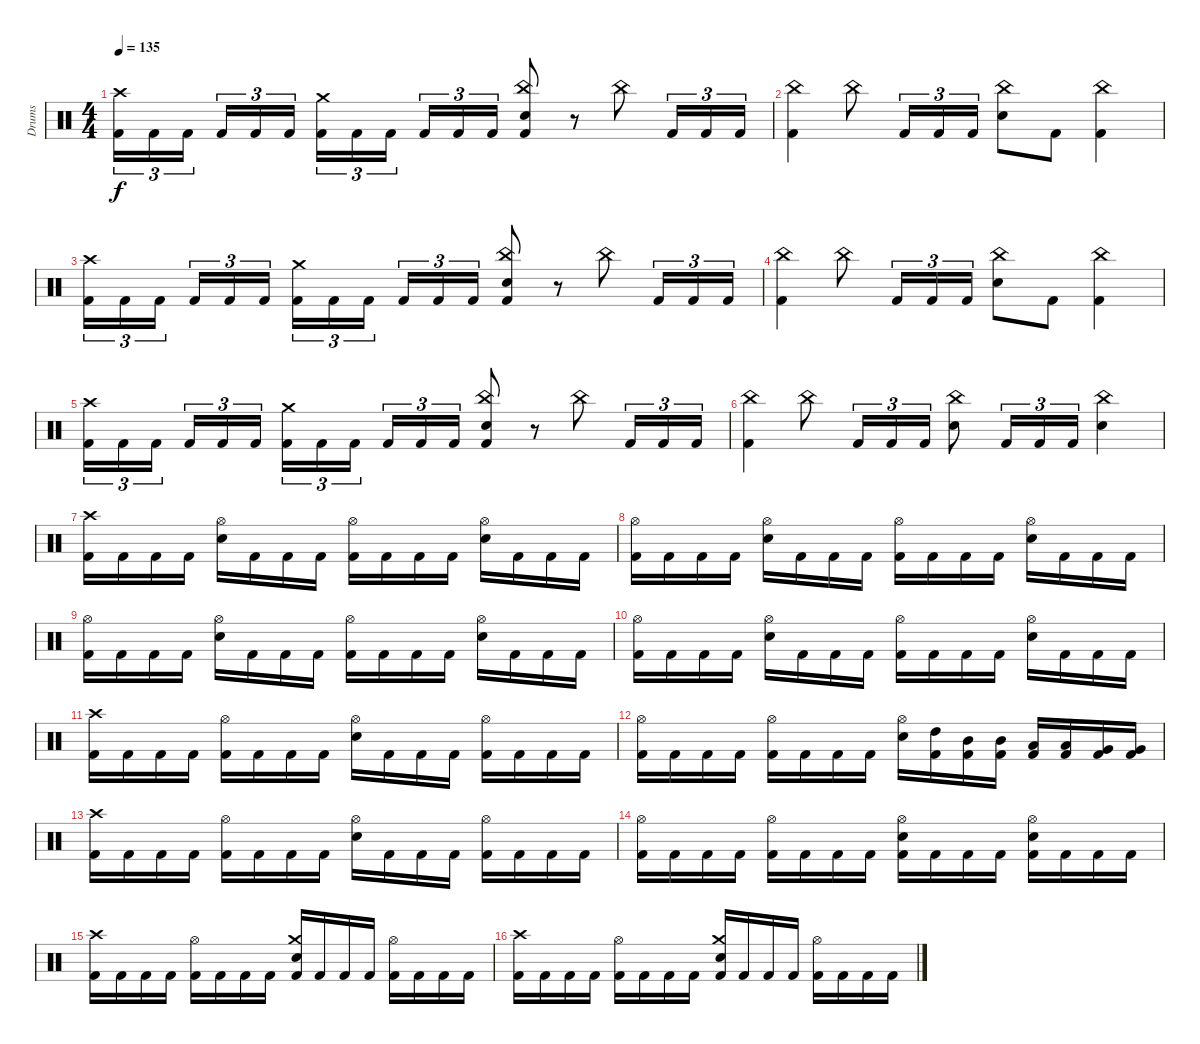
\track ("Drums" "Drums") {instrument percussion}
\staff {score}
\articulation defaults
\ts (4 4)
\tempo 135
\clef neutral
\ks c
("Crash high (hit)" "Kick (hit) 2").16{tu (3 2) dy f} "Kick (hit) 2".16{tu (3 2)} "Kick (hit) 2".16{tu (3 2) beam splitsecondary} "Kick (hit) 2".16{tu (3 2)} "Kick (hit) 2".16{tu (3 2)} "Kick (hit) 2".16{tu (3 2)} ("Crash medium (hit)" "Kick (hit) 2").16{tu (3 2)} "Kick (hit) 2".16{tu (3 2)} "Kick (hit) 2".16{tu (3 2) beam splitsecondary} "Kick (hit) 2".16{tu (3 2)} "Kick (hit) 2".16{tu (3 2)} "Kick (hit) 2".16{tu (3 2)} ("China (hit)" "Snare (hit) 2" "Kick (hit) 2").8 r.8 "China (hit)".8 "Kick (hit) 2".16{tu (3 2)} "Kick (hit) 2".16{tu (3 2)} "Kick (hit) 2".16{tu (3 2)} |
("China (hit)" "Kick (hit) 2").4 "China (hit)".8 "Kick (hit) 2".16{tu (3 2)} "Kick (hit) 2".16{tu (3 2)} "Kick (hit) 2".16{tu (3 2)} ("China (hit)" "Snare (hit) 2").8 "Kick (hit) 2".8 ("China (hit)" "Kick (hit) 2").4 |
("Crash high (hit)" "Kick (hit) 2").16{tu (3 2)} "Kick (hit) 2".16{tu (3 2)} "Kick (hit) 2".16{tu (3 2) beam splitsecondary} "Kick (hit) 2".16{tu (3 2)} "Kick (hit) 2".16{tu (3 2)} "Kick (hit) 2".16{tu (3 2)} ("Crash medium (hit)" "Kick (hit) 2").16{tu (3 2)} "Kick (hit) 2".16{tu (3 2)} "Kick (hit) 2".16{tu (3 2) beam splitsecondary} "Kick (hit) 2".16{tu (3 2)} "Kick (hit) 2".16{tu (3 2)} "Kick (hit) 2".16{tu (3 2)} ("China (hit)" "Snare (hit) 2" "Kick (hit) 2").8 r.8 "China (hit)".8 "Kick (hit) 2".16{tu (3 2)} "Kick (hit) 2".16{tu (3 2)} "Kick (hit) 2".16{tu (3 2)} |
("China (hit)" "Kick (hit) 2").4 "China (hit)".8 "Kick (hit) 2".16{tu (3 2)} "Kick (hit) 2".16{tu (3 2)} "Kick (hit) 2".16{tu (3 2)} ("China (hit)" "Snare (hit) 2").8 "Kick (hit) 2".8 ("China (hit)" "Kick (hit) 2").4 |
("Crash high (hit)" "Kick (hit) 2").16{tu (3 2)} "Kick (hit) 2".16{tu (3 2)} "Kick (hit) 2".16{tu (3 2) beam splitsecondary} "Kick (hit) 2".16{tu (3 2)} "Kick (hit) 2".16{tu (3 2)} "Kick (hit) 2".16{tu (3 2)} ("Crash medium (hit)" "Kick (hit) 2").16{tu (3 2)} "Kick (hit) 2".16{tu (3 2)} "Kick (hit) 2".16{tu (3 2) beam splitsecondary} "Kick (hit) 2".16{tu (3 2)} "Kick (hit) 2".16{tu (3 2)} "Kick (hit) 2".16{tu (3 2)} ("China (hit)" "Snare (hit) 2" "Kick (hit) 2").8 r.8 "China (hit)".8 "Kick (hit) 2".16{tu (3 2)} "Kick (hit) 2".16{tu (3 2)} "Kick (hit) 2".16{tu (3 2)} |
("China (hit)" "Kick (hit) 2").4 "China (hit)".8 "Kick (hit) 2".16{tu (3 2)} "Kick (hit) 2".16{tu (3 2)} "Kick (hit) 2".16{tu (3 2)} ("China (hit)" "Snare (hit) 2").8 "Kick (hit) 2".16{tu (3 2)} "Kick (hit) 2".16{tu (3 2)} "Kick (hit) 2".16{tu (3 2)} ("China (hit)" "Snare (hit) 2").4 |
("Crash high (hit)" "Kick (hit) 2").16 "Kick (hit) 2".16 "Kick (hit) 2".16 "Kick (hit) 2".16 ("Hi-Hat (open)" "Snare (hit) 2").16 "Kick (hit) 2".16 "Kick (hit) 2".16 "Kick (hit) 2".16 ("Hi-Hat (open)" "Kick (hit) 2").16 "Kick (hit) 2".16 "Kick (hit) 2".16 "Kick (hit) 2".16 ("Hi-Hat (open)" "Snare (hit) 2").16 "Kick (hit) 2".16 "Kick (hit) 2".16 "Kick (hit) 2".16 |
("Hi-Hat (open)" "Kick (hit) 2").16 "Kick (hit) 2".16 "Kick (hit) 2".16 "Kick (hit) 2".16 ("Hi-Hat (open)" "Snare (hit) 2").16 "Kick (hit) 2".16 "Kick (hit) 2".16 "Kick (hit) 2".16 ("Hi-Hat (open)" "Kick (hit) 2").16 "Kick (hit) 2".16 "Kick (hit) 2".16 "Kick (hit) 2".16 ("Hi-Hat (open)" "Snare (hit) 2").16 "Kick (hit) 2".16 "Kick (hit) 2".16 "Kick (hit) 2".16 |
("Hi-Hat (open)" "Kick (hit) 2").16 "Kick (hit) 2".16 "Kick (hit) 2".16 "Kick (hit) 2".16 ("Hi-Hat (open)" "Snare (hit) 2").16 "Kick (hit) 2".16 "Kick (hit) 2".16 "Kick (hit) 2".16 ("Hi-Hat (open)" "Kick (hit) 2").16 "Kick (hit) 2".16 "Kick (hit) 2".16 "Kick (hit) 2".16 ("Hi-Hat (open)" "Snare (hit) 2").16 "Kick (hit) 2".16 "Kick (hit) 2".16 "Kick (hit) 2".16 |
("Hi-Hat (open)" "Kick (hit) 2").16 "Kick (hit) 2".16 "Kick (hit) 2".16 "Kick (hit) 2".16 ("Hi-Hat (open)" "Snare (hit) 2").16 "Kick (hit) 2".16 "Kick (hit) 2".16 "Kick (hit) 2".16 ("Hi-Hat (open)" "Kick (hit) 2").16 "Kick (hit) 2".16 "Kick (hit) 2".16 "Kick (hit) 2".16 ("Hi-Hat (open)" "Snare (hit) 2").16 "Kick (hit) 2".16 "Kick (hit) 2".16 "Kick (hit) 2".16 |
("Crash high (hit)" "Kick (hit) 2").16 "Kick (hit) 2".16 "Kick (hit) 2".16 "Kick (hit) 2".16 ("Hi-Hat (open)" "Kick (hit) 2").16 "Kick (hit) 2".16 "Kick (hit) 2".16 "Kick (hit) 2".16 ("Hi-Hat (open)" "Snare (hit) 2").16 "Kick (hit) 2".16 "Kick (hit) 2".16 "Kick (hit) 2".16 ("Hi-Hat (open)" "Kick (hit) 2").16 "Kick (hit) 2".16 "Kick (hit) 2".16 "Kick (hit) 2".16 |
("Hi-Hat (open)" "Kick (hit) 2").16 "Kick (hit) 2".16 "Kick (hit) 2".16 "Kick (hit) 2".16 ("Hi-Hat (open)" "Kick (hit) 2").16 "Kick (hit) 2".16 "Kick (hit) 2".16 "Kick (hit) 2".16 ("Hi-Hat (open)" "Snare (hit) 2").16 ("High Tom (hit)" "Kick (hit) 2").16 ("Mid Tom (hit)" "Kick (hit) 2").16 ("Mid Tom (hit)" "Kick (hit) 2").16 ("Low Tom (hit)" "Kick (hit) 2").16 ("Low Tom (hit)" "Kick (hit) 2").16 ("Very Low Tom (hit)" "Kick (hit) 2").16 ("Very Low Tom (hit)" "Kick (hit) 2").16 |
("Crash high (hit)" "Kick (hit) 2").16 "Kick (hit) 2".16 "Kick (hit) 2".16 "Kick (hit) 2".16 ("Hi-Hat (open)" "Kick (hit) 2").16 "Kick (hit) 2".16 "Kick (hit) 2".16 "Kick (hit) 2".16 ("Hi-Hat (open)" "Snare (hit) 2").16 "Kick (hit) 2".16 "Kick (hit) 2".16 "Kick (hit) 2".16 ("Hi-Hat (open)" "Kick (hit) 2").16 "Kick (hit) 2".16 "Kick (hit) 2".16 "Kick (hit) 2".16 |
("Hi-Hat (open)" "Kick (hit) 2").16 "Kick (hit) 2".16 "Kick (hit) 2".16 "Kick (hit) 2".16 ("Hi-Hat (open)" "Kick (hit) 2").16 "Kick (hit) 2".16 "Kick (hit) 2".16 "Kick (hit) 2".16 ("Hi-Hat (open)" "Snare (hit) 2" "Kick (hit) 2").16 "Kick (hit) 2".16 "Kick (hit) 2".16 "Kick (hit) 2".16 ("Hi-Hat (open)" "Snare (hit) 2" "Kick (hit) 2").16 "Kick (hit) 2".16 "Kick (hit) 2".16 "Kick (hit) 2".16 |
("Crash high (hit)" "Kick (hit) 2").16 "Kick (hit) 2".16 "Kick (hit) 2".16 "Kick (hit) 2".16 ("Hi-Hat (open)" "Kick (hit) 2").16 "Kick (hit) 2".16 "Kick (hit) 2".16 "Kick (hit) 2".16 ("Crash medium (hit)" "Snare (hit) 2" "Kick (hit) 2").16 "Kick (hit) 2".16 "Kick (hit) 2".16 "Kick (hit) 2".16 ("Hi-Hat (open)" "Kick (hit) 2").16 "Kick (hit) 2".16 "Kick (hit) 2".16 "Kick (hit) 2".16 |
("Crash high (hit)" "Kick (hit) 2").16 "Kick (hit) 2".16 "Kick (hit) 2".16 "Kick (hit) 2".16 ("Hi-Hat (open)" "Kick (hit) 2").16 "Kick (hit) 2".16 "Kick (hit) 2".16 "Kick (hit) 2".16 ("Crash medium (hit)" "Snare (hit) 2" "Kick (hit) 2").16 "Kick (hit) 2".16 "Kick (hit) 2".16 "Kick (hit) 2".16 ("Hi-Hat (open)" "Kick (hit) 2").16 "Kick (hit) 2".16 "Kick (hit) 2".16 "Kick (hit) 2".16
